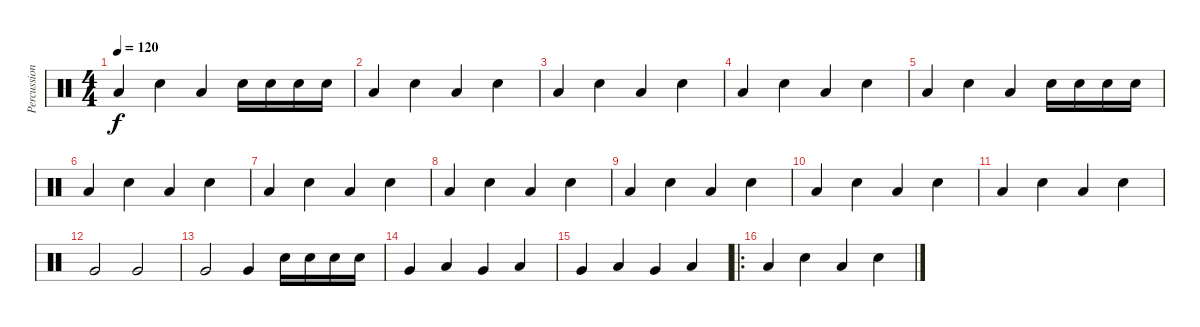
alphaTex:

\track ("Percussion" "Percussion") {instrument percussion}
\staff {score}
\articulation defaults
\ts (4 4)
\tempo 120
\clef neutral
\ks c "Low Floor Tom (hit)".4{dy f} "Electric Snare (hit)".4 "Low Floor Tom (hit)".4 "Electric Snare (hit)".16 "Electric Snare (hit)".16 "Electric Snare (hit)".16 "Electric Snare (hit)".16
|
"Low Floor Tom (hit)".4 "Electric Snare (hit)".4 "Low Floor Tom (hit)".4 "Electric Snare (hit)".4 |
"Low Floor Tom (hit)".4 "Electric Snare (hit)".4 "Low Floor Tom (hit)".4 "Electric Snare (hit)".4 |
"Low Floor Tom (hit)".4 "Electric Snare (hit)".4 "Low Floor Tom (hit)".4 "Electric Snare (hit)".4 |
"Low Floor Tom (hit)".4 "Electric Snare (hit)".4 "Low Floor Tom (hit)".4 "Electric Snare (hit)".16 "Electric Snare (hit)".16 "Electric Snare (hit)".16 "Electric Snare (hit)".16 |
"Low Floor Tom (hit)".4 "Electric Snare (hit)".4 "Low Floor Tom (hit)".4 "Electric Snare (hit)".4 |
"Low Floor Tom (hit)".4 "Electric Snare (hit)".4 "Low Floor Tom (hit)".4 "Electric Snare (hit)".4 |
"Low Floor Tom (hit)".4 "Electric Snare (hit)".4 "Low Floor Tom (hit)".4 "Electric Snare (hit)".4 |
"Low Floor Tom (hit)".4 "Electric Snare (hit)".4 "Low Floor Tom (hit)".4 "Electric Snare (hit)".4 |
"Low Floor Tom (hit)".4 "Electric Snare (hit)".4 "Low Floor Tom (hit)".4 "Electric Snare (hit)".4 |
"Low Floor Tom (hit)".4 "Electric Snare (hit)".4 "Low Floor Tom (hit)".4 "Electric Snare (hit)".4 |
"Very Low Tom (hit)".2 "Very Low Tom (hit)".2 |
"Very Low Tom (hit)".2 "Very Low Tom (hit)".4 "Electric Snare (hit)".16 "Electric Snare (hit)".16 "Electric Snare (hit)".16 "Electric Snare (hit)".16 |
"Very Low Tom (hit)".4 "Low Floor Tom (hit)".4 "Very Low Tom (hit)".4 "Low Floor Tom (hit)".4 |
"Very Low Tom (hit)".4 "Low Floor Tom (hit)".4 "Very Low Tom (hit)".4 "Low Floor Tom (hit)".4 |
\ro "Low Floor Tom (hit)".4 "Electric Snare (hit)".4 "Low Floor Tom (hit)".4 "Electric Snare (hit)".4
